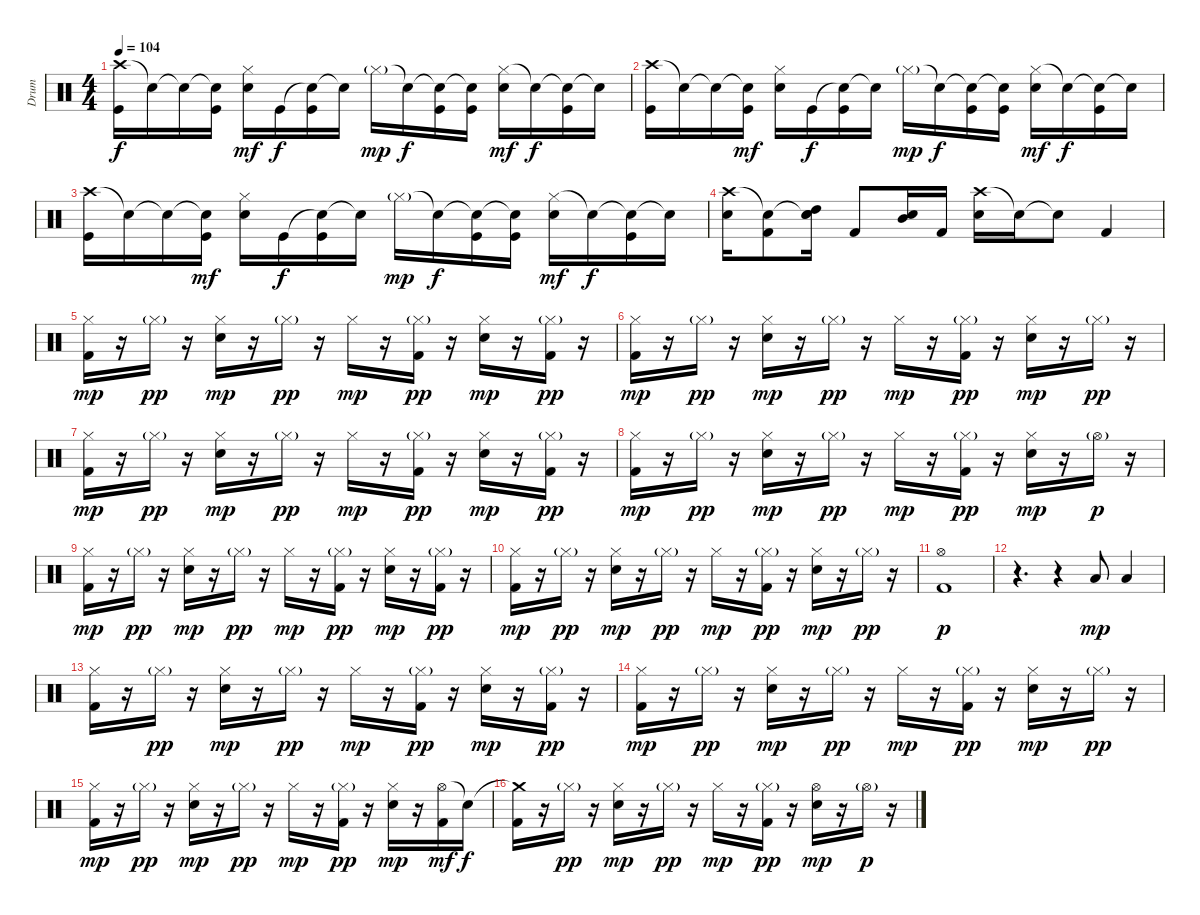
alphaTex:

\track ("Drum" "Drum") {instrument percussion}
\staff {score}
\articulation defaults
\ts (4 4)
\tempo 104
\clef neutral
\ks c
("Crash high (hit)" "Kick (hit)").16{dy f} "Snare (hit)"{t}.16 "Snare (hit)"{t}.16 ("Snare (hit)"{t} "Kick (hit)").16 ("Hi-Hat (closed)" "Snare (hit) 2").16{dy mf} "Kick (hit)".16{dy f} ("Snare (hit)"{t} "Kick (hit)").16 "Snare (hit)"{t}.16 "Hi-Hat (closed)"{g}.16{dy mp} "Snare (hit)"{t}.16{dy f} ("Snare (hit)"{t} "Kick (hit)").16 ("Snare (hit)"{t} "Kick (hit)").16 ("Hi-Hat (closed)" "Snare (hit) 2").16{dy mf} "Snare (hit)"{t}.16{dy f} ("Snare (hit)"{t} "Kick (hit)").16 "Snare (hit)"{t}.16 |
("Crash high (hit)" "Kick (hit)").16 "Snare (hit)"{t}.16 "Snare (hit)"{t}.16 ("Snare (hit)"{t} "Kick (hit)").16{dy mf} ("Hi-Hat (closed)" "Snare (hit) 2").16 "Kick (hit)".16{dy f} ("Snare (hit)"{t} "Kick (hit)").16 "Snare (hit)"{t}.16 "Hi-Hat (closed)"{g}.16{dy mp} "Snare (hit)"{t}.16{dy f} ("Snare (hit)"{t} "Kick (hit)").16 ("Snare (hit)"{t} "Kick (hit)").16 ("Hi-Hat (closed)" "Snare (hit) 2").16{dy mf} "Snare (hit)"{t}.16{dy f} ("Snare (hit)"{t} "Kick (hit)").16 "Snare (hit)"{t}.16 |
("Crash high (hit)" "Kick (hit)").16 "Snare (hit)"{t}.16 "Snare (hit)"{t}.16 ("Snare (hit)"{t} "Kick (hit)").16{dy mf} ("Hi-Hat (closed)" "Snare (hit) 2").16 "Kick (hit)".16{dy f} ("Snare (hit)"{t} "Kick (hit)").16 "Snare (hit)"{t}.16 "Hi-Hat (closed)"{g}.16{dy mp} "Snare (hit)"{t}.16{dy f} ("Snare (hit)"{t} "Kick (hit)").16 ("Snare (hit)"{t} "Kick (hit)").16 ("Hi-Hat (closed)" "Snare (hit) 2").16{dy mf} "Snare (hit)"{t}.16{dy f} ("Snare (hit)"{t} "Kick (hit)").16 "Snare (hit)"{t}.16 |
("Crash high (hit)" "Snare (hit) 2").16 ("Snare (hit)"{t} "Kick (hit) 2").8 ("Snare (hit)"{t} "High Tom (hit)" "Snare (hit) 2").16 "Kick (hit) 2".8 ("Mid Tom (hit)" "Snare (hit) 2").16 "Kick (hit) 2".16 ("Crash high (hit)" "Snare (hit) 2").16 "Snare (hit)"{t}.16 "Snare (hit)"{t}.8 "Kick (hit) 2".4 |
("Hi-Hat (closed)" "Kick (hit) 2").16{dy mp} r.16 "Hi-Hat (closed)"{g}.16{dy pp} r.16 ("Hi-Hat (closed)" "Snare (hit) 2").16{dy mp} r.16 "Hi-Hat (closed)"{g}.16{dy pp} r.16 "Hi-Hat (closed)".16{dy mp} r.16 ("Hi-Hat (closed)"{g} "Kick (hit) 2").16{dy pp} r.16 ("Hi-Hat (closed)" "Snare (hit) 2").16{dy mp} r.16 ("Hi-Hat (closed)"{g} "Kick (hit) 2").16{dy pp} r.16 |
("Hi-Hat (closed)" "Kick (hit) 2").16{dy mp} r.16 "Hi-Hat (closed)"{g}.16{dy pp} r.16 ("Hi-Hat (closed)" "Snare (hit) 2").16{dy mp} r.16 "Hi-Hat (closed)"{g}.16{dy pp} r.16 "Hi-Hat (closed)".16{dy mp} r.16 ("Hi-Hat (closed)"{g} "Kick (hit) 2").16{dy pp} r.16 ("Hi-Hat (closed)" "Snare (hit) 2").16{dy mp} r.16 "Hi-Hat (closed)"{g}.16{dy pp} r.16 |
("Hi-Hat (closed)" "Kick (hit) 2").16{dy mp} r.16 "Hi-Hat (closed)"{g}.16{dy pp} r.16 ("Hi-Hat (closed)" "Snare (hit) 2").16{dy mp} r.16 "Hi-Hat (closed)"{g}.16{dy pp} r.16 "Hi-Hat (closed)".16{dy mp} r.16 ("Hi-Hat (closed)"{g} "Kick (hit) 2").16{dy pp} r.16 ("Hi-Hat (closed)" "Snare (hit) 2").16{dy mp} r.16 ("Hi-Hat (closed)"{g} "Kick (hit) 2").16{dy pp} r.16 |
("Hi-Hat (closed)" "Kick (hit) 2").16{dy mp} r.16 "Hi-Hat (closed)"{g}.16{dy pp} r.16 ("Hi-Hat (closed)" "Snare (hit) 2").16{dy mp} r.16 "Hi-Hat (closed)"{g}.16{dy pp} r.16 "Hi-Hat (closed)".16{dy mp} r.16 ("Hi-Hat (closed)"{g} "Kick (hit) 2").16{dy pp} r.16 ("Hi-Hat (closed)" "Snare (hit) 2").16{dy mp} r.16 "Hi-Hat (open)"{g}.16{dy p} r.16 |
("Hi-Hat (closed)" "Kick (hit) 2").16{dy mp} r.16 "Hi-Hat (closed)"{g}.16{dy pp} r.16 ("Hi-Hat (closed)" "Snare (hit) 2").16{dy mp} r.16 "Hi-Hat (closed)"{g}.16{dy pp} r.16 "Hi-Hat (closed)".16{dy mp} r.16 ("Hi-Hat (closed)"{g} "Kick (hit) 2").16{dy pp} r.16 ("Hi-Hat (closed)" "Snare (hit) 2").16{dy mp} r.16 ("Hi-Hat (closed)"{g} "Kick (hit) 2").16{dy pp} r.16 |
("Hi-Hat (closed)" "Kick (hit) 2").16{dy mp} r.16 "Hi-Hat (closed)"{g}.16{dy pp} r.16 ("Hi-Hat (closed)" "Snare (hit) 2").16{dy mp} r.16 "Hi-Hat (closed)"{g}.16{dy pp} r.16 "Hi-Hat (closed)".16{dy mp} r.16 ("Hi-Hat (closed)"{g} "Kick (hit) 2").16{dy pp} r.16 ("Hi-Hat (closed)" "Snare (hit) 2").16{dy mp} r.16 "Hi-Hat (closed)"{g}.16{dy pp} r.16 |
("Hi-Hat (open)" "Kick (hit) 2").1{dy p} |
r.4{d} r.4 "Low Tom (hit)".8{dy mp} "Low Tom (hit)".4 |
("Hi-Hat (closed)" "Kick (hit) 2").16 r.16 "Hi-Hat (closed)"{g}.16{dy pp} r.16 ("Hi-Hat (closed)" "Snare (hit) 2").16{dy mp} r.16 "Hi-Hat (closed)"{g}.16{dy pp} r.16 "Hi-Hat (closed)".16{dy mp} r.16 ("Hi-Hat (closed)"{g} "Kick (hit) 2").16{dy pp} r.16 ("Hi-Hat (closed)" "Snare (hit) 2").16{dy mp} r.16 ("Hi-Hat (closed)"{g} "Kick (hit) 2").16{dy pp} r.16 |
("Hi-Hat (closed)" "Kick (hit) 2").16{dy mp} r.16 "Hi-Hat (closed)"{g}.16{dy pp} r.16 ("Hi-Hat (closed)" "Snare (hit) 2").16{dy mp} r.16 "Hi-Hat (closed)"{g}.16{dy pp} r.16 "Hi-Hat (closed)".16{dy mp} r.16 ("Hi-Hat (closed)"{g} "Kick (hit) 2").16{dy pp} r.16 ("Hi-Hat (closed)" "Snare (hit) 2").16{dy mp} r.16 "Hi-Hat (closed)"{g}.16{dy pp} r.16 |
("Hi-Hat (closed)" "Kick (hit) 2").16{dy mp} r.16 "Hi-Hat (closed)"{g}.16{dy pp} r.16 ("Hi-Hat (closed)" "Snare (hit) 2").16{dy mp} r.16 "Hi-Hat (closed)"{g}.16{dy pp} r.16 "Hi-Hat (closed)".16{dy mp} r.16 ("Hi-Hat (closed)"{g} "Kick (hit) 2").16{dy pp} r.16 ("Hi-Hat (closed)" "Snare (hit) 2").16{dy mp} r.16 ("Hi-Hat (open)" "Kick (hit) 2").16{dy mf} "Snare (hit)"{t}.16{dy f} |
("Crash medium (hit)"{t} "Kick (hit) 2").16 r.16 "Hi-Hat (closed)"{g}.16{dy pp} r.16 ("Hi-Hat (closed)" "Snare (hit) 2").16{dy mp} r.16 "Hi-Hat (closed)"{g}.16{dy pp} r.16 "Hi-Hat (closed)".16{dy mp} r.16 ("Hi-Hat (closed)"{g} "Kick (hit) 2").16{dy pp} r.16 ("Hi-Hat (open)" "Snare (hit) 2").16{dy mp} r.16 "Hi-Hat (open)"{g}.16{dy p} r.16
